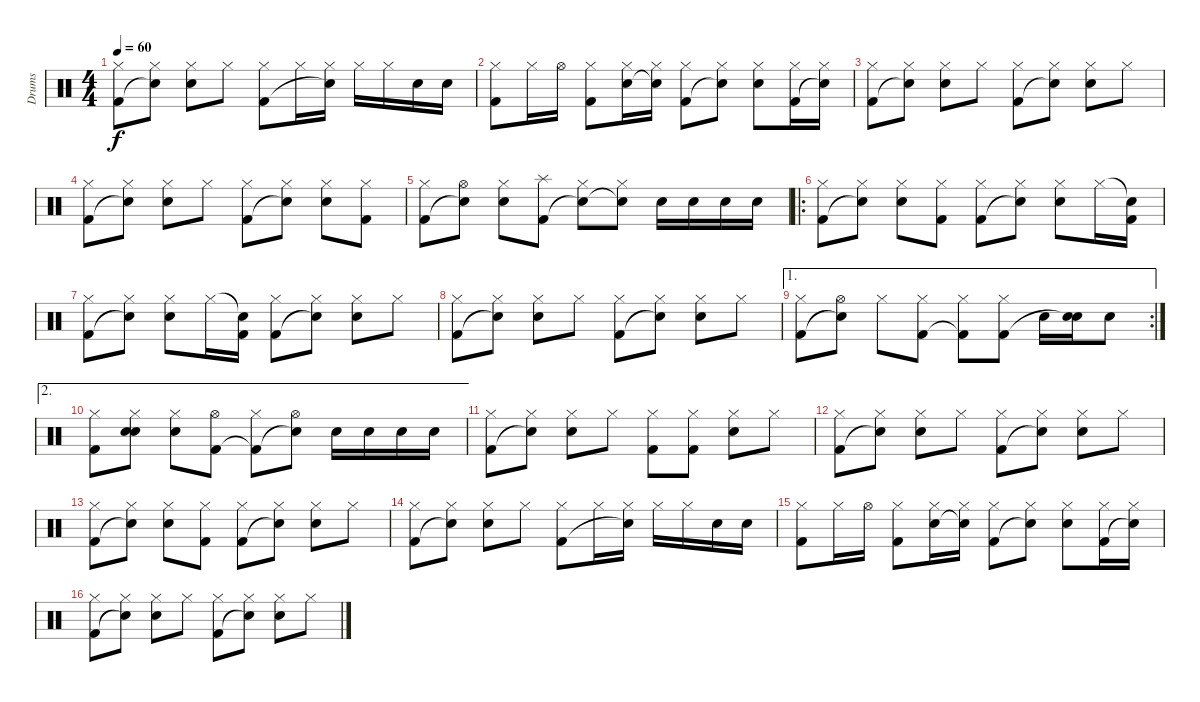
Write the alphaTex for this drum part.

\track ("Drums" "Drums") {instrument percussion}
\staff {score}
\articulation defaults
\ts (4 4)
\tempo 60
\clef neutral
\ks c
("Hi-Hat (closed)" "Kick (hit) 2").8{dy f} ("Hi-Hat (closed)" "Snare (hit)"{t}).8 ("Hi-Hat (closed)" "Snare (hit) 2").8 "Hi-Hat (closed)".8 ("Hi-Hat (closed)" "Kick (hit) 2").8 "Hi-Hat (closed)".16 ("Hi-Hat (closed)" "Snare (hit)"{t}).16 "Hi-Hat (closed)".16 "Hi-Hat (closed)".16 "Snare (hit) 2".16 "Snare (hit) 2".16 |
("Hi-Hat (closed)" "Kick (hit) 2").8 "Hi-Hat (closed)".16 "Hi-Hat (open)".16 ("Hi-Hat (closed)" "Kick (hit) 2").8 ("Hi-Hat (closed)" "Snare (hit) 2").16 ("Hi-Hat (closed)" "Snare (hit)"{t}).16 ("Hi-Hat (closed)" "Kick (hit) 2").8 ("Hi-Hat (closed)" "Snare (hit)"{t}).8 ("Hi-Hat (closed)" "Snare (hit) 2").8 ("Hi-Hat (closed)" "Kick (hit) 2").16 ("Hi-Hat (closed)" "Snare (hit)"{t}).16 |
("Hi-Hat (closed)" "Kick (hit) 2").8 ("Hi-Hat (closed)" "Snare (hit)"{t}).8 ("Hi-Hat (closed)" "Snare (hit) 2").8 "Hi-Hat (closed)".8 ("Hi-Hat (closed)" "Kick (hit) 2").8 ("Hi-Hat (closed)" "Snare (hit)"{t}).8 ("Hi-Hat (closed)" "Snare (hit) 2").8 "Hi-Hat (closed)".8 |
("Hi-Hat (closed)" "Kick (hit) 2").8 ("Hi-Hat (closed)" "Snare (hit)"{t}).8 ("Hi-Hat (closed)" "Snare (hit) 2").8 "Hi-Hat (closed)".8 ("Hi-Hat (closed)" "Kick (hit) 2").8 ("Hi-Hat (closed)" "Snare (hit)"{t}).8 ("Hi-Hat (closed)" "Snare (hit) 2").8 ("Hi-Hat (closed)" "Kick (hit) 2").8 |
("Hi-Hat (closed)" "Kick (hit) 2").8 ("Hi-Hat (open)" "Snare (hit)"{t}).8 ("Hi-Hat (closed)" "Snare (hit) 2").8 ("Splash (hit)" "Kick (hit) 2").8 ("Hi-Hat (closed)" "Snare (hit)"{t}).8 ("Hi-Hat (closed)" "Snare (hit)"{t}).8 "Snare (hit) 2".16 "Snare (hit) 2".16 "Snare (hit) 2".16 "Snare (hit) 2".16 |
\ro
("Hi-Hat (closed)" "Kick (hit) 2").8 ("Hi-Hat (closed)" "Snare (hit)"{t}).8 ("Hi-Hat (closed)" "Snare (hit) 2").8 ("Hi-Hat (closed)" "Kick (hit) 2").8 ("Hi-Hat (closed)" "Kick (hit) 2").8 ("Hi-Hat (closed)" "Snare (hit)"{t}).8 ("Hi-Hat (closed)" "Snare (hit) 2").8 "Hi-Hat (closed)".16 ("Snare (hit)"{t} "Kick (hit) 2").16 |
("Hi-Hat (closed)" "Kick (hit) 2").8 ("Hi-Hat (closed)" "Snare (hit)"{t}).8 ("Hi-Hat (closed)" "Snare (hit) 2").8 "Hi-Hat (closed)".16 ("Snare (hit)"{t} "Kick (hit) 2").16 ("Hi-Hat (closed)" "Kick (hit) 2").8 ("Hi-Hat (closed)" "Snare (hit)"{t}).8 ("Hi-Hat (closed)" "Snare (hit) 2").8 "Hi-Hat (closed)".8 |
("Hi-Hat (closed)" "Kick (hit) 2").8 ("Hi-Hat (closed)" "Snare (hit)"{t}).8 ("Hi-Hat (closed)" "Snare (hit) 2").8 "Hi-Hat (closed)".8 ("Hi-Hat (closed)" "Kick (hit) 2").8 ("Hi-Hat (closed)" "Snare (hit)"{t}).8 ("Hi-Hat (closed)" "Snare (hit) 2").8 "Hi-Hat (closed)".8 |
\ae 1
\rc 2
("Hi-Hat (closed)" "Kick (hit) 2").8 ("Hi-Hat (open)" "Snare (hit)"{t}).8 "Hi-Hat (closed)".8 ("Hi-Hat (closed)" "Kick (hit) 2").8 ("Hi-Hat (closed)" "Kick (hit) 2"{t}).8 ("Hi-Hat (closed)" "Kick (hit) 2").8 "Snare (hit) 2".16 ("Snare (hit) 2" "Snare (hit)"{t}).16 "Snare (hit) 2".8 |
\ae 2
("Hi-Hat (closed)" "Kick (hit) 2").8 ("Hi-Hat (closed)" "Snare (hit) 2" "Snare (hit)").8 ("Hi-Hat (closed)" "Snare (hit) 2").8 ("Hi-Hat (open)" "Kick (hit) 2").8 ("Hi-Hat (closed)" "Kick (hit) 2"{t}).8 ("Hi-Hat (open)" "Snare (hit)"{t}).8 "Snare (hit) 2".16 "Snare (hit) 2".16 "Snare (hit) 2".16 "Snare (hit) 2".16 |
("Hi-Hat (closed)" "Kick (hit) 2").8 ("Hi-Hat (closed)" "Snare (hit)"{t}).8 ("Hi-Hat (closed)" "Snare (hit) 2").8 "Hi-Hat (closed)".8 ("Hi-Hat (closed)" "Kick (hit) 2").8 ("Hi-Hat (closed)" "Kick (hit) 2").8 ("Hi-Hat (closed)" "Snare (hit) 2").8 "Hi-Hat (closed)".8 |
("Hi-Hat (closed)" "Kick (hit) 2").8 ("Hi-Hat (closed)" "Snare (hit)"{t}).8 ("Hi-Hat (closed)" "Snare (hit) 2").8 "Hi-Hat (closed)".8 ("Hi-Hat (closed)" "Kick (hit) 2").8 ("Hi-Hat (closed)" "Snare (hit)"{t}).8 ("Hi-Hat (closed)" "Snare (hit) 2").8 "Hi-Hat (closed)".8 |
("Hi-Hat (closed)" "Kick (hit) 2").8 ("Hi-Hat (closed)" "Snare (hit)"{t}).8 ("Hi-Hat (closed)" "Snare (hit) 2").8 ("Hi-Hat (closed)" "Kick (hit) 2").8 ("Hi-Hat (closed)" "Kick (hit) 2").8 ("Hi-Hat (closed)" "Snare (hit)"{t}).8 ("Hi-Hat (closed)" "Snare (hit) 2").8 "Hi-Hat (closed)".8 |
("Hi-Hat (closed)" "Kick (hit) 2").8 ("Hi-Hat (closed)" "Snare (hit)"{t}).8 ("Hi-Hat (closed)" "Snare (hit) 2").8 "Hi-Hat (closed)".8 ("Hi-Hat (closed)" "Kick (hit) 2").8 "Hi-Hat (closed)".16 ("Hi-Hat (closed)" "Snare (hit)"{t}).16 "Hi-Hat (closed)".16 "Hi-Hat (closed)".16 "Snare (hit) 2".16 "Snare (hit) 2".16 |
("Hi-Hat (closed)" "Kick (hit) 2").8 "Hi-Hat (closed)".16 "Hi-Hat (open)".16 ("Hi-Hat (closed)" "Kick (hit) 2").8 ("Hi-Hat (closed)" "Snare (hit) 2").16 ("Hi-Hat (closed)" "Snare (hit)"{t}).16 ("Hi-Hat (closed)" "Kick (hit) 2").8 ("Hi-Hat (closed)" "Snare (hit)"{t}).8 ("Hi-Hat (closed)" "Snare (hit) 2").8 ("Hi-Hat (closed)" "Kick (hit) 2").16 ("Hi-Hat (closed)" "Snare (hit)"{t}).16 |
("Hi-Hat (closed)" "Kick (hit) 2").8 ("Hi-Hat (closed)" "Snare (hit)"{t}).8 ("Hi-Hat (closed)" "Snare (hit) 2").8 "Hi-Hat (closed)".8 ("Hi-Hat (closed)" "Kick (hit) 2").8 ("Hi-Hat (closed)" "Snare (hit)"{t}).8 ("Hi-Hat (closed)" "Snare (hit) 2").8 "Hi-Hat (closed)".8
